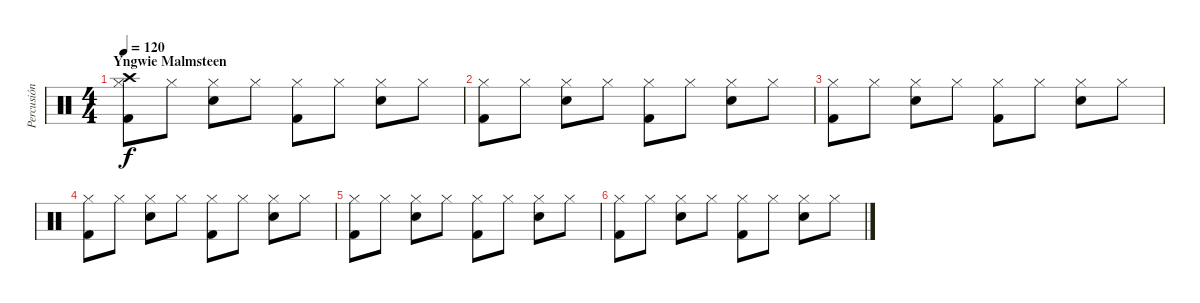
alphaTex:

\track ("Percusión" "Percusión") {instrument percussion}
\staff {score}
\articulation defaults
\ts (4 4)
\section ("" "Yngwie Malmsteen")
\tempo 120
\clef neutral
\ks c
("Kick (hit) 2" "Hi-Hat (closed)" "Crash high (hit)").8{dy f} "Hi-Hat (closed)".8 ("Snare (hit) 2" "Hi-Hat (closed)").8 "Hi-Hat (closed)".8 ("Kick (hit) 2" "Hi-Hat (closed)").8 "Hi-Hat (closed)".8 ("Snare (hit) 2" "Hi-Hat (closed)").8 "Hi-Hat (closed)".8 |
("Kick (hit) 2" "Hi-Hat (closed)").8 "Hi-Hat (closed)".8 ("Snare (hit) 2" "Hi-Hat (closed)").8 "Hi-Hat (closed)".8 ("Kick (hit) 2" "Hi-Hat (closed)").8 "Hi-Hat (closed)".8 ("Snare (hit) 2" "Hi-Hat (closed)").8 "Hi-Hat (closed)".8 |
("Kick (hit) 2" "Hi-Hat (closed)").8 "Hi-Hat (closed)".8 ("Snare (hit) 2" "Hi-Hat (closed)").8 "Hi-Hat (closed)".8 ("Kick (hit) 2" "Hi-Hat (closed)").8 "Hi-Hat (closed)".8 ("Snare (hit) 2" "Hi-Hat (closed)").8 "Hi-Hat (closed)".8 |
("Kick (hit) 2" "Hi-Hat (closed)").8 "Hi-Hat (closed)".8 ("Snare (hit) 2" "Hi-Hat (closed)").8 "Hi-Hat (closed)".8 ("Kick (hit) 2" "Hi-Hat (closed)").8 "Hi-Hat (closed)".8 ("Snare (hit) 2" "Hi-Hat (closed)").8 "Hi-Hat (closed)".8 |
("Kick (hit) 2" "Hi-Hat (closed)").8 "Hi-Hat (closed)".8 ("Snare (hit) 2" "Hi-Hat (closed)").8 "Hi-Hat (closed)".8 ("Kick (hit) 2" "Hi-Hat (closed)").8 "Hi-Hat (closed)".8 ("Snare (hit) 2" "Hi-Hat (closed)").8 "Hi-Hat (closed)".8 |
("Kick (hit) 2" "Hi-Hat (closed)").8 "Hi-Hat (closed)".8 ("Snare (hit) 2" "Hi-Hat (closed)").8 "Hi-Hat (closed)".8 ("Kick (hit) 2" "Hi-Hat (closed)").8 "Hi-Hat (closed)".8 ("Snare (hit) 2" "Hi-Hat (closed)").8 "Hi-Hat (closed)".8
